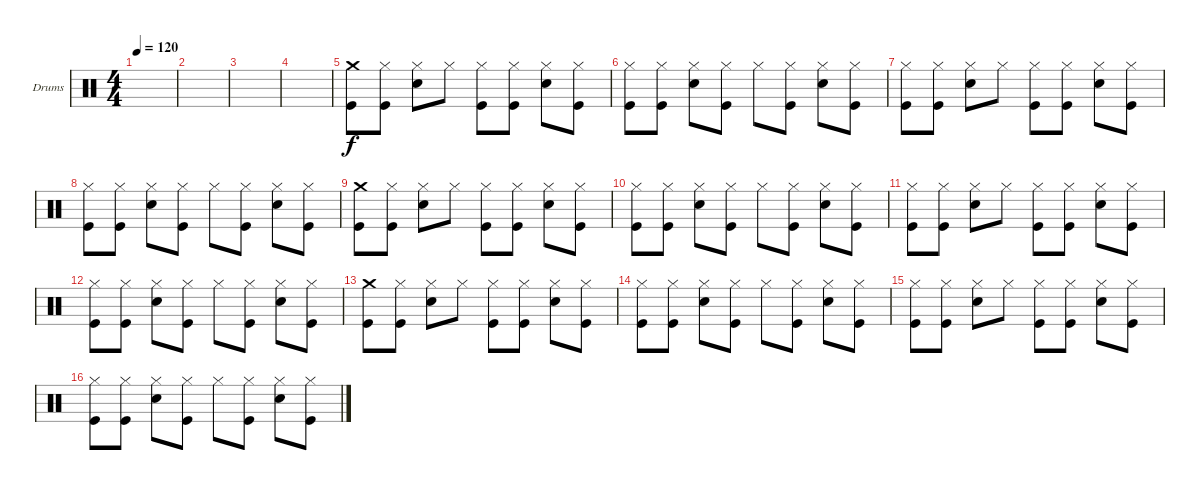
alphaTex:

\defaultSystemsLayout 4
\bracketExtendMode groupsimilarinstruments
\firstSystemTrackNameOrientation horizontal
\otherSystemsTrackNameOrientation horizontal
\track ("Drumkit" "Drums") {instrument percussion}
\staff {score}
\articulation defaults
\ts (4 4)
\tempo 120
\clef neutral
\ks c
|
|
|
|
("Crash medium (hit)" "Kick (hit)").8 ("Hi-Hat (closed)" "Kick (hit)").8 ("Hi-Hat (closed)" "Snare (hit) 2").8 "Hi-Hat (closed)".8 ("Hi-Hat (closed)" "Kick (hit)").8 ("Hi-Hat (closed)" "Kick (hit)").8 ("Hi-Hat (closed)" "Snare (hit) 2").8 ("Hi-Hat (closed)" "Kick (hit)").8 |
("Hi-Hat (closed)" "Kick (hit)").8 ("Hi-Hat (closed)" "Kick (hit)").8 ("Hi-Hat (closed)" "Snare (hit) 2").8 ("Hi-Hat (closed)" "Kick (hit)").8 "Hi-Hat (closed)".8 ("Hi-Hat (closed)" "Kick (hit)").8 ("Hi-Hat (closed)" "Snare (hit) 2").8 ("Hi-Hat (closed)" "Kick (hit)").8 |
("Hi-Hat (closed)" "Kick (hit)").8 ("Hi-Hat (closed)" "Kick (hit)").8 ("Hi-Hat (closed)" "Snare (hit) 2").8 "Hi-Hat (closed)".8 ("Hi-Hat (closed)" "Kick (hit)").8 ("Hi-Hat (closed)" "Kick (hit)").8 ("Hi-Hat (closed)" "Snare (hit) 2").8 ("Hi-Hat (closed)" "Kick (hit)").8 |
("Hi-Hat (closed)" "Kick (hit)").8 ("Hi-Hat (closed)" "Kick (hit)").8 ("Hi-Hat (closed)" "Snare (hit) 2").8 ("Hi-Hat (closed)" "Kick (hit)").8 "Hi-Hat (closed)".8 ("Hi-Hat (closed)" "Kick (hit)").8 ("Hi-Hat (closed)" "Snare (hit) 2").8 ("Hi-Hat (closed)" "Kick (hit)").8 |
("Crash medium (hit)" "Kick (hit)").8 ("Hi-Hat (closed)" "Kick (hit)").8 ("Hi-Hat (closed)" "Snare (hit) 2").8 "Hi-Hat (closed)".8 ("Hi-Hat (closed)" "Kick (hit)").8 ("Hi-Hat (closed)" "Kick (hit)").8 ("Hi-Hat (closed)" "Snare (hit) 2").8 ("Hi-Hat (closed)" "Kick (hit)").8 |
("Hi-Hat (closed)" "Kick (hit)").8 ("Hi-Hat (closed)" "Kick (hit)").8 ("Hi-Hat (closed)" "Snare (hit) 2").8 ("Hi-Hat (closed)" "Kick (hit)").8 "Hi-Hat (closed)".8 ("Hi-Hat (closed)" "Kick (hit)").8 ("Hi-Hat (closed)" "Snare (hit) 2").8 ("Hi-Hat (closed)" "Kick (hit)").8 |
("Hi-Hat (closed)" "Kick (hit)").8 ("Hi-Hat (closed)" "Kick (hit)").8 ("Hi-Hat (closed)" "Snare (hit) 2").8 "Hi-Hat (closed)".8 ("Hi-Hat (closed)" "Kick (hit)").8 ("Hi-Hat (closed)" "Kick (hit)").8 ("Hi-Hat (closed)" "Snare (hit) 2").8 ("Hi-Hat (closed)" "Kick (hit)").8 |
("Hi-Hat (closed)" "Kick (hit)").8 ("Hi-Hat (closed)" "Kick (hit)").8 ("Hi-Hat (closed)" "Snare (hit) 2").8 ("Hi-Hat (closed)" "Kick (hit)").8 "Hi-Hat (closed)".8 ("Hi-Hat (closed)" "Kick (hit)").8 ("Hi-Hat (closed)" "Snare (hit) 2").8 ("Hi-Hat (closed)" "Kick (hit)").8 |
("Crash medium (hit)" "Kick (hit)").8 ("Hi-Hat (closed)" "Kick (hit)").8 ("Hi-Hat (closed)" "Snare (hit) 2").8 "Hi-Hat (closed)".8 ("Hi-Hat (closed)" "Kick (hit)").8 ("Hi-Hat (closed)" "Kick (hit)").8 ("Hi-Hat (closed)" "Snare (hit) 2").8 ("Hi-Hat (closed)" "Kick (hit)").8 |
("Hi-Hat (closed)" "Kick (hit)").8 ("Hi-Hat (closed)" "Kick (hit)").8 ("Hi-Hat (closed)" "Snare (hit) 2").8 ("Hi-Hat (closed)" "Kick (hit)").8 "Hi-Hat (closed)".8 ("Hi-Hat (closed)" "Kick (hit)").8 ("Hi-Hat (closed)" "Snare (hit) 2").8 ("Hi-Hat (closed)" "Kick (hit)").8 |
("Hi-Hat (closed)" "Kick (hit)").8 ("Hi-Hat (closed)" "Kick (hit)").8 ("Hi-Hat (closed)" "Snare (hit) 2").8 "Hi-Hat (closed)".8 ("Hi-Hat (closed)" "Kick (hit)").8 ("Hi-Hat (closed)" "Kick (hit)").8 ("Hi-Hat (closed)" "Snare (hit) 2").8 ("Hi-Hat (closed)" "Kick (hit)").8 |
("Hi-Hat (closed)" "Kick (hit)").8 ("Hi-Hat (closed)" "Kick (hit)").8 ("Hi-Hat (closed)" "Snare (hit) 2").8 ("Hi-Hat (closed)" "Kick (hit)").8 "Hi-Hat (closed)".8 ("Hi-Hat (closed)" "Kick (hit)").8 ("Hi-Hat (closed)" "Snare (hit) 2").8 ("Hi-Hat (closed)" "Kick (hit)").8
